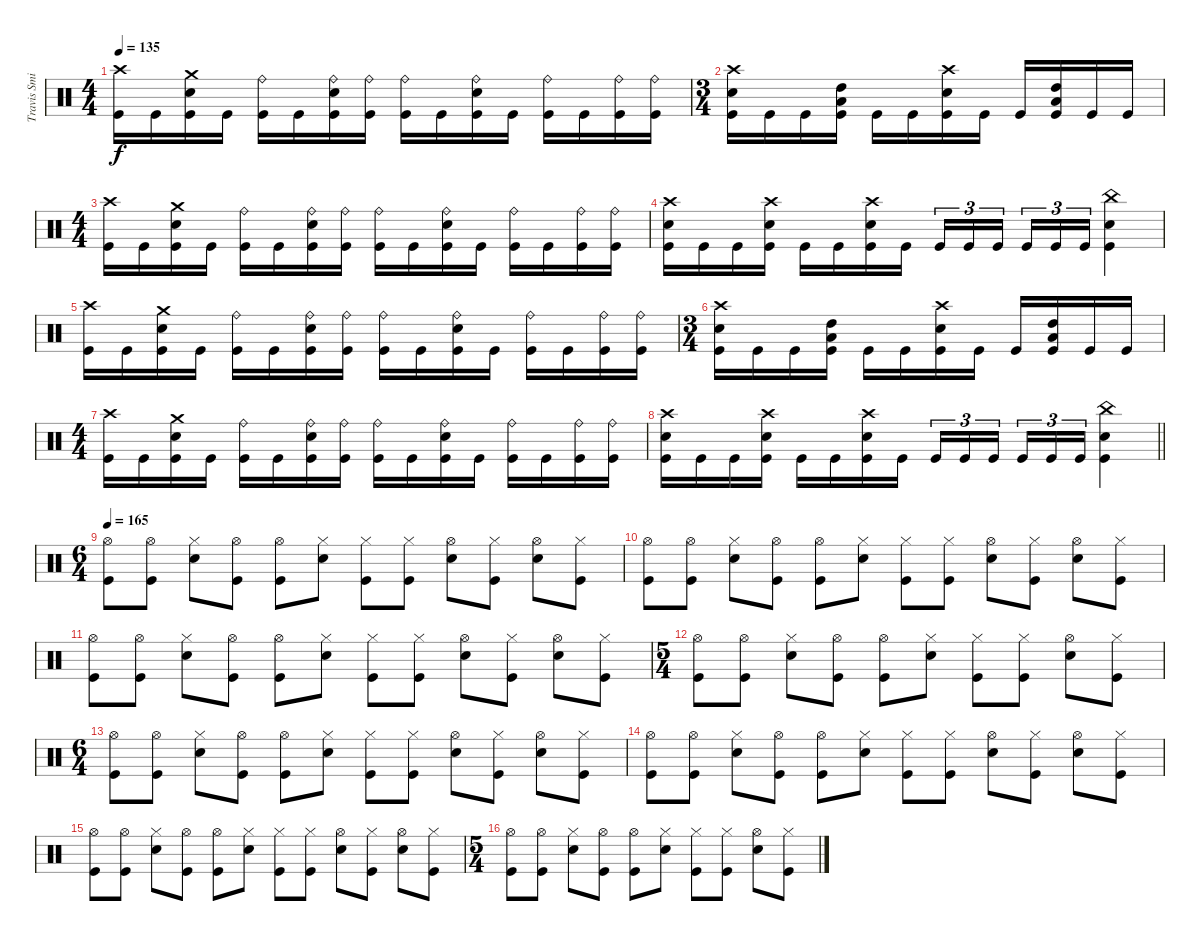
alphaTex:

\track ("Travis Smith" "Travis Smi") {instrument percussion}
\staff {score}
\articulation defaults
\ts (4 4)
\section ("" "")
\tempo 135
\clef neutral
\ks c
("Crash high (hit)" "Kick (hit)").16{dy f} "Kick (hit)".16 ("Crash medium (hit)" "Electric Snare (hit)" "Kick (hit)").16 "Kick (hit)".16 ("Ride (bell)" "Kick (hit)").16 "Kick (hit)".16 ("Ride (bell)" "Electric Snare (hit)" "Kick (hit)").16 ("Ride (bell)" "Kick (hit)").16 ("Ride (bell)" "Kick (hit)").16 "Kick (hit)".16 ("Ride (bell)" "Electric Snare (hit)" "Kick (hit)").16 "Kick (hit)".16 ("Ride (bell)" "Kick (hit)").16 "Kick (hit)".16 ("Ride (bell)" "Kick (hit)").16 ("Ride (bell)" "Kick (hit)").16 |
\ts (3 4)
("Crash high (hit)" "Electric Snare (hit)" "Kick (hit)").16 "Kick (hit)".16 "Kick (hit)".16 ("High Tom (hit)" "Low Tom (hit)" "Kick (hit)").16 "Kick (hit)".16 "Kick (hit)".16 ("Crash high (hit)" "Electric Snare (hit)" "Kick (hit)").16 "Kick (hit)".16 "Kick (hit)".16 ("High Tom (hit)" "Low Tom (hit)" "Kick (hit)").16 "Kick (hit)".16 "Kick (hit)".16 |
\ts (4 4)
("Crash high (hit)" "Kick (hit)").16 "Kick (hit)".16 ("Crash medium (hit)" "Electric Snare (hit)" "Kick (hit)").16 "Kick (hit)".16 ("Ride (bell)" "Kick (hit)").16 "Kick (hit)".16 ("Ride (bell)" "Electric Snare (hit)" "Kick (hit)").16 ("Ride (bell)" "Kick (hit)").16 ("Ride (bell)" "Kick (hit)").16 "Kick (hit)".16 ("Ride (bell)" "Electric Snare (hit)" "Kick (hit)").16 "Kick (hit)".16 ("Ride (bell)" "Kick (hit)").16 "Kick (hit)".16 ("Ride (bell)" "Kick (hit)").16 ("Ride (bell)" "Kick (hit)").16 |
("Crash high (hit)" "Electric Snare (hit)" "Kick (hit)").16 "Kick (hit)".16 "Kick (hit)".16 ("Crash high (hit)" "Electric Snare (hit)" "Kick (hit)").16 "Kick (hit)".16 "Kick (hit)".16 ("Crash high (hit)" "Electric Snare (hit)" "Kick (hit)").16 "Kick (hit)".16 "Kick (hit)".16{tu (3 2)} "Kick (hit)".16{tu (3 2)} "Kick (hit)".16{tu (3 2)} "Kick (hit)".16{tu (3 2)} "Kick (hit)".16{tu (3 2)} "Kick (hit)".16{tu (3 2)} ("China (hit)" "Electric Snare (hit)" "Kick (hit)").4 |
("Crash high (hit)" "Kick (hit)").16 "Kick (hit)".16 ("Crash medium (hit)" "Electric Snare (hit)" "Kick (hit)").16 "Kick (hit)".16 ("Ride (bell)" "Kick (hit)").16 "Kick (hit)".16 ("Ride (bell)" "Electric Snare (hit)" "Kick (hit)").16 ("Ride (bell)" "Kick (hit)").16 ("Ride (bell)" "Kick (hit)").16 "Kick (hit)".16 ("Ride (bell)" "Electric Snare (hit)" "Kick (hit)").16 "Kick (hit)".16 ("Ride (bell)" "Kick (hit)").16 "Kick (hit)".16 ("Ride (bell)" "Kick (hit)").16 ("Ride (bell)" "Kick (hit)").16 |
\ts (3 4)
("Crash high (hit)" "Electric Snare (hit)" "Kick (hit)").16 "Kick (hit)".16 "Kick (hit)".16 ("High Tom (hit)" "Low Tom (hit)" "Kick (hit)").16 "Kick (hit)".16 "Kick (hit)".16 ("Crash high (hit)" "Electric Snare (hit)" "Kick (hit)").16 "Kick (hit)".16 "Kick (hit)".16 ("High Tom (hit)" "Low Tom (hit)" "Kick (hit)").16 "Kick (hit)".16 "Kick (hit)".16 |
\ts (4 4)
("Crash high (hit)" "Kick (hit)").16 "Kick (hit)".16 ("Crash medium (hit)" "Electric Snare (hit)" "Kick (hit)").16 "Kick (hit)".16 ("Ride (bell)" "Kick (hit)").16 "Kick (hit)".16 ("Ride (bell)" "Electric Snare (hit)" "Kick (hit)").16 ("Ride (bell)" "Kick (hit)").16 ("Ride (bell)" "Kick (hit)").16 "Kick (hit)".16 ("Ride (bell)" "Electric Snare (hit)" "Kick (hit)").16 "Kick (hit)".16 ("Ride (bell)" "Kick (hit)").16 "Kick (hit)".16 ("Ride (bell)" "Kick (hit)").16 ("Ride (bell)" "Kick (hit)").16 |
\barLineRight lightlight
("Crash high (hit)" "Electric Snare (hit)" "Kick (hit)").16 "Kick (hit)".16 "Kick (hit)".16 ("Crash high (hit)" "Electric Snare (hit)" "Kick (hit)").16 "Kick (hit)".16 "Kick (hit)".16 ("Crash high (hit)" "Electric Snare (hit)" "Kick (hit)").16 "Kick (hit)".16 "Kick (hit)".16{tu (3 2)} "Kick (hit)".16{tu (3 2)} "Kick (hit)".16{tu (3 2)} "Kick (hit)".16{tu (3 2)} "Kick (hit)".16{tu (3 2)} "Kick (hit)".16{tu (3 2)} ("China (hit)" "Electric Snare (hit)" "Kick (hit)").4 |
\ts (6 4)
\section ("" "")
\tempo 165
("Hi-Hat (open)" "Kick (hit)").8 ("Hi-Hat (open)" "Kick (hit)").8 ("Hi-Hat (closed)" "Electric Snare (hit)").8 ("Hi-Hat (open)" "Kick (hit)").8 ("Hi-Hat (open)" "Kick (hit)").8 ("Hi-Hat (closed)" "Electric Snare (hit)").8 ("Hi-Hat (closed)" "Kick (hit)").8 ("Hi-Hat (closed)" "Kick (hit)").8 ("Hi-Hat (open)" "Electric Snare (hit)").8 ("Hi-Hat (closed)" "Kick (hit)").8 ("Hi-Hat (open)" "Electric Snare (hit)").8 ("Hi-Hat (closed)" "Kick (hit)").8 |
("Hi-Hat (open)" "Kick (hit)").8 ("Hi-Hat (open)" "Kick (hit)").8 ("Hi-Hat (closed)" "Electric Snare (hit)").8 ("Hi-Hat (open)" "Kick (hit)").8 ("Hi-Hat (open)" "Kick (hit)").8 ("Hi-Hat (closed)" "Electric Snare (hit)").8 ("Hi-Hat (closed)" "Kick (hit)").8 ("Hi-Hat (closed)" "Kick (hit)").8 ("Hi-Hat (open)" "Electric Snare (hit)").8 ("Hi-Hat (closed)" "Kick (hit)").8 ("Hi-Hat (open)" "Electric Snare (hit)").8 ("Hi-Hat (closed)" "Kick (hit)").8 |
("Hi-Hat (open)" "Kick (hit)").8 ("Hi-Hat (open)" "Kick (hit)").8 ("Hi-Hat (closed)" "Electric Snare (hit)").8 ("Hi-Hat (open)" "Kick (hit)").8 ("Hi-Hat (open)" "Kick (hit)").8 ("Hi-Hat (closed)" "Electric Snare (hit)").8 ("Hi-Hat (closed)" "Kick (hit)").8 ("Hi-Hat (closed)" "Kick (hit)").8 ("Hi-Hat (open)" "Electric Snare (hit)").8 ("Hi-Hat (closed)" "Kick (hit)").8 ("Hi-Hat (open)" "Electric Snare (hit)").8 ("Hi-Hat (closed)" "Kick (hit)").8 |
\ts (5 4)
("Hi-Hat (open)" "Kick (hit)").8 ("Hi-Hat (open)" "Kick (hit)").8 ("Hi-Hat (closed)" "Electric Snare (hit)").8 ("Hi-Hat (open)" "Kick (hit)").8 ("Hi-Hat (open)" "Kick (hit)").8 ("Hi-Hat (closed)" "Electric Snare (hit)").8 ("Hi-Hat (closed)" "Kick (hit)").8 ("Hi-Hat (closed)" "Kick (hit)").8 ("Hi-Hat (open)" "Electric Snare (hit)").8 ("Hi-Hat (closed)" "Kick (hit)").8 |
\ts (6 4)
("Hi-Hat (open)" "Kick (hit)").8 ("Hi-Hat (open)" "Kick (hit)").8 ("Hi-Hat (closed)" "Electric Snare (hit)").8 ("Hi-Hat (open)" "Kick (hit)").8 ("Hi-Hat (open)" "Kick (hit)").8 ("Hi-Hat (closed)" "Electric Snare (hit)").8 ("Hi-Hat (closed)" "Kick (hit)").8 ("Hi-Hat (closed)" "Kick (hit)").8 ("Hi-Hat (open)" "Electric Snare (hit)").8 ("Hi-Hat (closed)" "Kick (hit)").8 ("Hi-Hat (open)" "Electric Snare (hit)").8 ("Hi-Hat (closed)" "Kick (hit)").8 |
("Hi-Hat (open)" "Kick (hit)").8 ("Hi-Hat (open)" "Kick (hit)").8 ("Hi-Hat (closed)" "Electric Snare (hit)").8 ("Hi-Hat (open)" "Kick (hit)").8 ("Hi-Hat (open)" "Kick (hit)").8 ("Hi-Hat (closed)" "Electric Snare (hit)").8 ("Hi-Hat (closed)" "Kick (hit)").8 ("Hi-Hat (closed)" "Kick (hit)").8 ("Hi-Hat (open)" "Electric Snare (hit)").8 ("Hi-Hat (closed)" "Kick (hit)").8 ("Hi-Hat (open)" "Electric Snare (hit)").8 ("Hi-Hat (closed)" "Kick (hit)").8 |
("Hi-Hat (open)" "Kick (hit)").8 ("Hi-Hat (open)" "Kick (hit)").8 ("Hi-Hat (closed)" "Electric Snare (hit)").8 ("Hi-Hat (open)" "Kick (hit)").8 ("Hi-Hat (open)" "Kick (hit)").8 ("Hi-Hat (closed)" "Electric Snare (hit)").8 ("Hi-Hat (closed)" "Kick (hit)").8 ("Hi-Hat (closed)" "Kick (hit)").8 ("Hi-Hat (open)" "Electric Snare (hit)").8 ("Hi-Hat (closed)" "Kick (hit)").8 ("Hi-Hat (open)" "Electric Snare (hit)").8 ("Hi-Hat (closed)" "Kick (hit)").8 |
\ts (5 4)
("Hi-Hat (open)" "Kick (hit)").8 ("Hi-Hat (open)" "Kick (hit)").8 ("Hi-Hat (closed)" "Electric Snare (hit)").8 ("Hi-Hat (open)" "Kick (hit)").8 ("Hi-Hat (open)" "Kick (hit)").8 ("Hi-Hat (closed)" "Electric Snare (hit)").8 ("Hi-Hat (closed)" "Kick (hit)").8 ("Hi-Hat (closed)" "Kick (hit)").8 ("Hi-Hat (open)" "Electric Snare (hit)").8 ("Hi-Hat (closed)" "Kick (hit)").8
